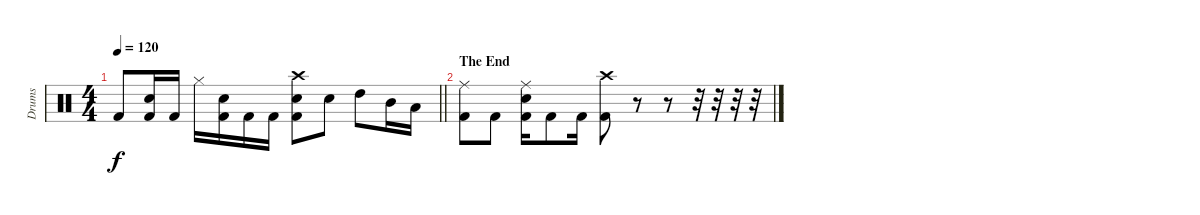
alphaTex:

\track ("Drums" "Drums") {instrument percussion}
\staff {score}
\articulation defaults
\ts (4 4)
\tempo 120
\clef neutral
\barLineRight lightlight
\ks c "Kick (hit) 2".8{dy f}
("Electric Snare (hit)" "Kick (hit) 2").16 "Kick (hit) 2".16 "Hi-Hat (closed)".16 ("Electric Snare (hit)" "Kick (hit) 2").16 "Kick (hit) 2".16 "Kick (hit) 2".16 ("Crash high (hit)" "Electric Snare (hit)" "Kick (hit) 2").8 "Electric Snare (hit)".8 "High Tom (hit)".8 "Mid Tom (hit)".16 "Low Tom (hit)".16 |
\section ("" "The End")
("Ride (middle)" "Kick (hit) 2").8 "Kick (hit) 2".8 ("Ride (middle)" "Electric Snare (hit)" "Kick (hit) 2").16 "Kick (hit) 2".8 "Kick (hit) 2".16 ("Crash high (hit)" "Kick (hit) 2").8 r.8 r.8 r.32 r.32 r.32 r.32
